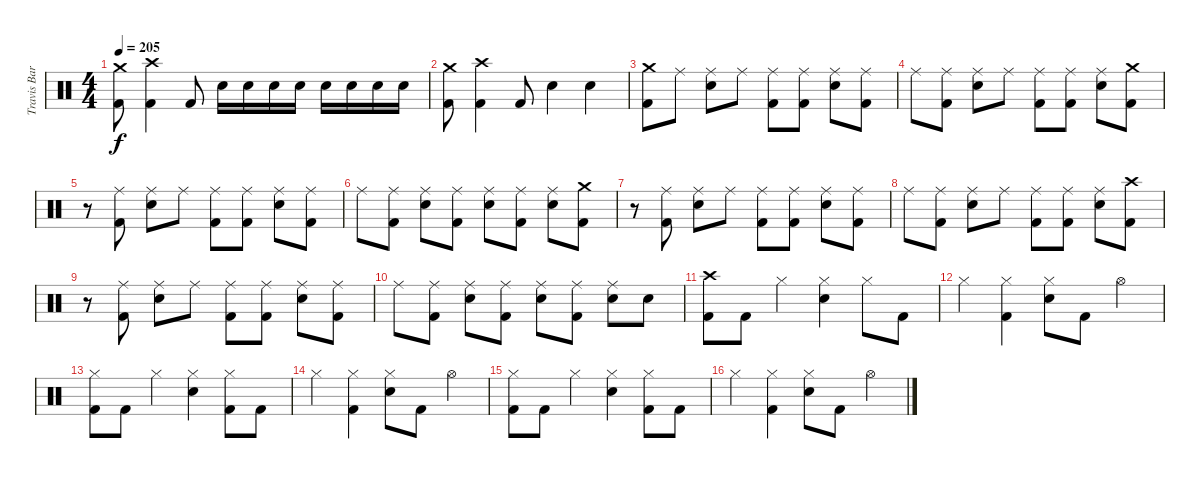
\track ("Travis Barker (Drums)" "Travis Bar") {instrument percussion}
\staff {score}
\articulation defaults
\ts (4 4)
\tempo 205
\clef neutral
\ks c
("Crash medium (hit)" "Kick (hit) 2").8{dy f} ("Crash high (hit)" "Kick (hit) 2").4 "Kick (hit) 2".8 "Electric Snare (hit)".16 "Electric Snare (hit)".16 "Electric Snare (hit)".16 "Electric Snare (hit)".16 "Electric Snare (hit)".16 "Electric Snare (hit)".16 "Electric Snare (hit)".16 "Electric Snare (hit)".16 |
("Crash medium (hit)" "Kick (hit) 2").8 ("Crash high (hit)" "Kick (hit) 2").4 "Kick (hit) 2".8 "Electric Snare (hit)".4 "Electric Snare (hit)".4 |
("Crash medium (hit)" "Kick (hit) 2").8 "Ride (middle)".8 ("Ride (middle)" "Electric Snare (hit)").8 "Ride (middle)".8 ("Ride (middle)" "Kick (hit) 2").8 ("Ride (middle)" "Kick (hit) 2").8 ("Ride (middle)" "Electric Snare (hit)").8 ("Ride (middle)" "Kick (hit) 2").8 |
"Ride (middle)".8 ("Ride (middle)" "Kick (hit) 2").8 ("Ride (middle)" "Electric Snare (hit)").8 "Ride (middle)".8 ("Ride (middle)" "Kick (hit) 2").8 ("Ride (middle)" "Kick (hit) 2").8 ("Ride (middle)" "Electric Snare (hit)").8 ("Crash medium (hit)" "Kick (hit) 2").8 |
r.8 ("Ride (middle)" "Kick (hit) 2").8 ("Ride (middle)" "Electric Snare (hit)").8 "Ride (middle)".8 ("Ride (middle)" "Kick (hit) 2").8 ("Ride (middle)" "Kick (hit) 2").8 ("Ride (middle)" "Electric Snare (hit)").8 ("Ride (middle)" "Kick (hit) 2").8 |
"Ride (middle)".8 ("Ride (middle)" "Kick (hit) 2").8 ("Ride (middle)" "Electric Snare (hit)").8 ("Ride (middle)" "Kick (hit) 2").8 ("Ride (middle)" "Electric Snare (hit)").8 ("Ride (middle)" "Kick (hit) 2").8 ("Ride (middle)" "Electric Snare (hit)").8 ("Crash medium (hit)" "Kick (hit) 2").8 |
r.8 ("Ride (middle)" "Kick (hit) 2").8 ("Ride (middle)" "Electric Snare (hit)").8 "Ride (middle)".8 ("Ride (middle)" "Kick (hit) 2").8 ("Ride (middle)" "Kick (hit) 2").8 ("Ride (middle)" "Electric Snare (hit)").8 ("Ride (middle)" "Kick (hit) 2").8 |
"Ride (middle)".8 ("Ride (middle)" "Kick (hit) 2").8 ("Ride (middle)" "Electric Snare (hit)").8 "Ride (middle)".8 ("Ride (middle)" "Kick (hit) 2").8 ("Ride (middle)" "Kick (hit) 2").8 ("Ride (middle)" "Electric Snare (hit)").8 ("Crash high (hit)" "Kick (hit) 2").8 |
r.8 ("Ride (middle)" "Kick (hit) 2").8 ("Ride (middle)" "Electric Snare (hit)").8 "Ride (middle)".8 ("Ride (middle)" "Kick (hit) 2").8 ("Ride (middle)" "Kick (hit) 2").8 ("Ride (middle)" "Electric Snare (hit)").8 ("Ride (middle)" "Kick (hit) 2").8 |
"Ride (middle)".8 ("Ride (middle)" "Kick (hit) 2").8 ("Ride (middle)" "Electric Snare (hit)").8 ("Ride (middle)" "Kick (hit) 2").8 ("Ride (middle)" "Electric Snare (hit)").8 ("Ride (middle)" "Kick (hit) 2").8 ("Ride (middle)" "Electric Snare (hit)").8 "Electric Snare (hit)".8 |
("Crash high (hit)" "Kick (hit) 2").8 "Kick (hit) 2".8 "Hi-Hat (closed)".4 ("Hi-Hat (closed)" "Electric Snare (hit)").4 "Hi-Hat (closed)".8 "Kick (hit) 2".8 |
"Hi-Hat (closed)".4 ("Hi-Hat (closed)" "Kick (hit) 2").4 ("Hi-Hat (closed)" "Electric Snare (hit)").8 "Kick (hit) 2".8 "Hi-Hat (open)".4 |
("Hi-Hat (closed)" "Kick (hit) 2").8 "Kick (hit) 2".8 "Hi-Hat (closed)".4 ("Hi-Hat (closed)" "Electric Snare (hit)").4 ("Hi-Hat (closed)" "Kick (hit) 2").8 "Kick (hit) 2".8 |
"Hi-Hat (closed)".4 ("Hi-Hat (closed)" "Kick (hit) 2").4 ("Hi-Hat (closed)" "Electric Snare (hit)").8 "Kick (hit) 2".8 "Hi-Hat (open)".4 |
("Hi-Hat (closed)" "Kick (hit) 2").8 "Kick (hit) 2".8 "Hi-Hat (closed)".4 ("Hi-Hat (closed)" "Electric Snare (hit)").4 ("Hi-Hat (closed)" "Kick (hit) 2").8 "Kick (hit) 2".8 |
"Hi-Hat (closed)".4 ("Hi-Hat (closed)" "Kick (hit) 2").4 ("Hi-Hat (closed)" "Electric Snare (hit)").8 "Kick (hit) 2".8 "Hi-Hat (open)".4
